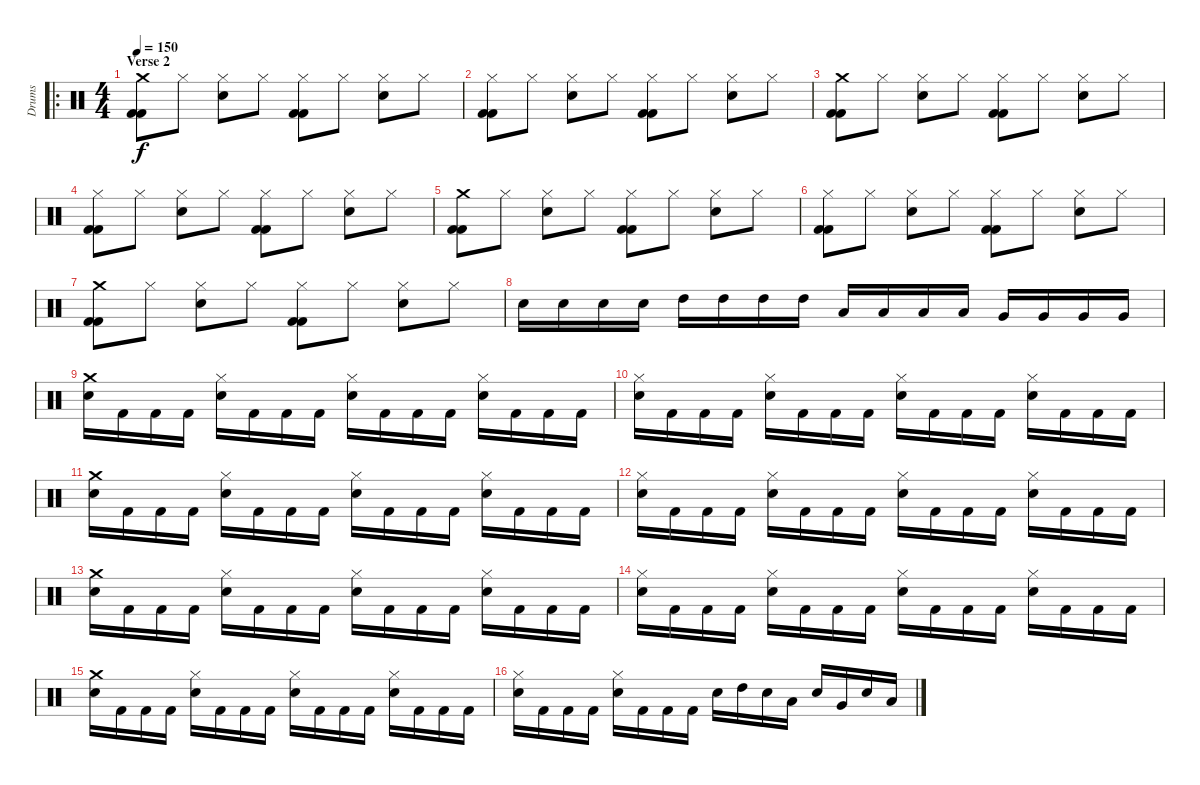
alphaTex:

\track ("Drums" "Drums") {instrument percussion}
\staff {score}
\articulation defaults
\ro
\ts (4 4)
\section ("" "Verse 2")
\tempo 150
\clef neutral
\ks c
("Crash medium (hit)" "Kick (hit) 2" "Kick (hit) 2").8{dy f} "Hi-Hat (closed)".8 ("Electric Snare (hit)" "Hi-Hat (closed)").8 "Hi-Hat (closed)".8 ("Hi-Hat (closed)" "Kick (hit) 2" "Kick (hit) 2").8 "Hi-Hat (closed)".8 ("Electric Snare (hit)" "Hi-Hat (closed)").8 "Hi-Hat (closed)".8 |
("Hi-Hat (closed)" "Kick (hit) 2" "Kick (hit) 2").8 "Hi-Hat (closed)".8 ("Electric Snare (hit)" "Hi-Hat (closed)").8 "Hi-Hat (closed)".8 ("Hi-Hat (closed)" "Kick (hit) 2" "Kick (hit) 2").8 "Hi-Hat (closed)".8 ("Electric Snare (hit)" "Hi-Hat (closed)").8 "Hi-Hat (closed)".8 |
("Crash medium (hit)" "Kick (hit) 2" "Kick (hit) 2").8 "Hi-Hat (closed)".8 ("Electric Snare (hit)" "Hi-Hat (closed)").8 "Hi-Hat (closed)".8 ("Hi-Hat (closed)" "Kick (hit) 2" "Kick (hit) 2").8 "Hi-Hat (closed)".8 ("Electric Snare (hit)" "Hi-Hat (closed)").8 "Hi-Hat (closed)".8 |
("Hi-Hat (closed)" "Kick (hit) 2" "Kick (hit) 2").8 "Hi-Hat (closed)".8 ("Electric Snare (hit)" "Hi-Hat (closed)").8 "Hi-Hat (closed)".8 ("Hi-Hat (closed)" "Kick (hit) 2" "Kick (hit) 2").8 "Hi-Hat (closed)".8 ("Electric Snare (hit)" "Hi-Hat (closed)").8 "Hi-Hat (closed)".8 |
("Crash medium (hit)" "Kick (hit) 2" "Kick (hit) 2").8 "Hi-Hat (closed)".8 ("Electric Snare (hit)" "Hi-Hat (closed)").8 "Hi-Hat (closed)".8 ("Hi-Hat (closed)" "Kick (hit) 2" "Kick (hit) 2").8 "Hi-Hat (closed)".8 ("Electric Snare (hit)" "Hi-Hat (closed)").8 "Hi-Hat (closed)".8 |
("Hi-Hat (closed)" "Kick (hit) 2" "Kick (hit) 2").8 "Hi-Hat (closed)".8 ("Electric Snare (hit)" "Hi-Hat (closed)").8 "Hi-Hat (closed)".8 ("Hi-Hat (closed)" "Kick (hit) 2" "Kick (hit) 2").8 "Hi-Hat (closed)".8 ("Electric Snare (hit)" "Hi-Hat (closed)").8 "Hi-Hat (closed)".8 |
("Crash medium (hit)" "Kick (hit) 2" "Kick (hit) 2").8 "Hi-Hat (closed)".8 ("Electric Snare (hit)" "Hi-Hat (closed)").8 "Hi-Hat (closed)".8 ("Hi-Hat (closed)" "Kick (hit) 2" "Kick (hit) 2").8 "Hi-Hat (closed)".8 ("Electric Snare (hit)" "Hi-Hat (closed)").8 "Hi-Hat (closed)".8 |
"Electric Snare (hit)".16 "Electric Snare (hit)".16 "Electric Snare (hit)".16 "Electric Snare (hit)".16 "High Tom (hit)".16 "High Tom (hit)".16 "High Tom (hit)".16 "High Tom (hit)".16 "Low Tom (hit)".16 "Low Tom (hit)".16 "Low Tom (hit)".16 "Low Tom (hit)".16 "Very Low Tom (hit)".16 "Very Low Tom (hit)".16 "Very Low Tom (hit)".16 "Very Low Tom (hit)".16 |
("Crash medium (hit)" "Electric Snare (hit)").16 "Kick (hit) 2".16 "Kick (hit) 2".16 "Kick (hit) 2".16 ("Electric Snare (hit)" "Hi-Hat (closed)").16 "Kick (hit) 2".16 "Kick (hit) 2".16 "Kick (hit) 2".16 ("Hi-Hat (closed)" "Electric Snare (hit)").16 "Kick (hit) 2".16 "Kick (hit) 2".16 "Kick (hit) 2".16 ("Electric Snare (hit)" "Hi-Hat (closed)").16 "Kick (hit) 2".16 "Kick (hit) 2".16 "Kick (hit) 2".16 |
("Hi-Hat (closed)" "Electric Snare (hit)").16 "Kick (hit) 2".16 "Kick (hit) 2".16 "Kick (hit) 2".16 ("Electric Snare (hit)" "Hi-Hat (closed)").16 "Kick (hit) 2".16 "Kick (hit) 2".16 "Kick (hit) 2".16 ("Hi-Hat (closed)" "Electric Snare (hit)").16 "Kick (hit) 2".16 "Kick (hit) 2".16 "Kick (hit) 2".16 ("Electric Snare (hit)" "Hi-Hat (closed)").16 "Kick (hit) 2".16 "Kick (hit) 2".16 "Kick (hit) 2".16 |
("Crash medium (hit)" "Electric Snare (hit)").16 "Kick (hit) 2".16 "Kick (hit) 2".16 "Kick (hit) 2".16 ("Electric Snare (hit)" "Hi-Hat (closed)").16 "Kick (hit) 2".16 "Kick (hit) 2".16 "Kick (hit) 2".16 ("Hi-Hat (closed)" "Electric Snare (hit)").16 "Kick (hit) 2".16 "Kick (hit) 2".16 "Kick (hit) 2".16 ("Electric Snare (hit)" "Hi-Hat (closed)").16 "Kick (hit) 2".16 "Kick (hit) 2".16 "Kick (hit) 2".16 |
("Hi-Hat (closed)" "Electric Snare (hit)").16 "Kick (hit) 2".16 "Kick (hit) 2".16 "Kick (hit) 2".16 ("Electric Snare (hit)" "Hi-Hat (closed)").16 "Kick (hit) 2".16 "Kick (hit) 2".16 "Kick (hit) 2".16 ("Hi-Hat (closed)" "Electric Snare (hit)").16 "Kick (hit) 2".16 "Kick (hit) 2".16 "Kick (hit) 2".16 ("Electric Snare (hit)" "Hi-Hat (closed)").16 "Kick (hit) 2".16 "Kick (hit) 2".16 "Kick (hit) 2".16 |
("Crash medium (hit)" "Electric Snare (hit)").16 "Kick (hit) 2".16 "Kick (hit) 2".16 "Kick (hit) 2".16 ("Electric Snare (hit)" "Hi-Hat (closed)").16 "Kick (hit) 2".16 "Kick (hit) 2".16 "Kick (hit) 2".16 ("Hi-Hat (closed)" "Electric Snare (hit)").16 "Kick (hit) 2".16 "Kick (hit) 2".16 "Kick (hit) 2".16 ("Electric Snare (hit)" "Hi-Hat (closed)").16 "Kick (hit) 2".16 "Kick (hit) 2".16 "Kick (hit) 2".16 |
("Hi-Hat (closed)" "Electric Snare (hit)").16 "Kick (hit) 2".16 "Kick (hit) 2".16 "Kick (hit) 2".16 ("Electric Snare (hit)" "Hi-Hat (closed)").16 "Kick (hit) 2".16 "Kick (hit) 2".16 "Kick (hit) 2".16 ("Hi-Hat (closed)" "Electric Snare (hit)").16 "Kick (hit) 2".16 "Kick (hit) 2".16 "Kick (hit) 2".16 ("Electric Snare (hit)" "Hi-Hat (closed)").16 "Kick (hit) 2".16 "Kick (hit) 2".16 "Kick (hit) 2".16 |
("Crash medium (hit)" "Electric Snare (hit)").16 "Kick (hit) 2".16 "Kick (hit) 2".16 "Kick (hit) 2".16 ("Electric Snare (hit)" "Hi-Hat (closed)").16 "Kick (hit) 2".16 "Kick (hit) 2".16 "Kick (hit) 2".16 ("Hi-Hat (closed)" "Electric Snare (hit)").16 "Kick (hit) 2".16 "Kick (hit) 2".16 "Kick (hit) 2".16 ("Electric Snare (hit)" "Hi-Hat (closed)").16 "Kick (hit) 2".16 "Kick (hit) 2".16 "Kick (hit) 2".16 |
("Hi-Hat (closed)" "Electric Snare (hit)").16 "Kick (hit) 2".16 "Kick (hit) 2".16 "Kick (hit) 2".16 ("Electric Snare (hit)" "Hi-Hat (closed)").16 "Kick (hit) 2".16 "Kick (hit) 2".16 "Kick (hit) 2".16 "Electric Snare (hit)".16 "High Tom (hit)".16 "Electric Snare (hit)".16 "Low Tom (hit)".16 "Electric Snare (hit)".16 "Very Low Tom (hit)".16 "Electric Snare (hit)".16 "Low Floor Tom (hit)".16
